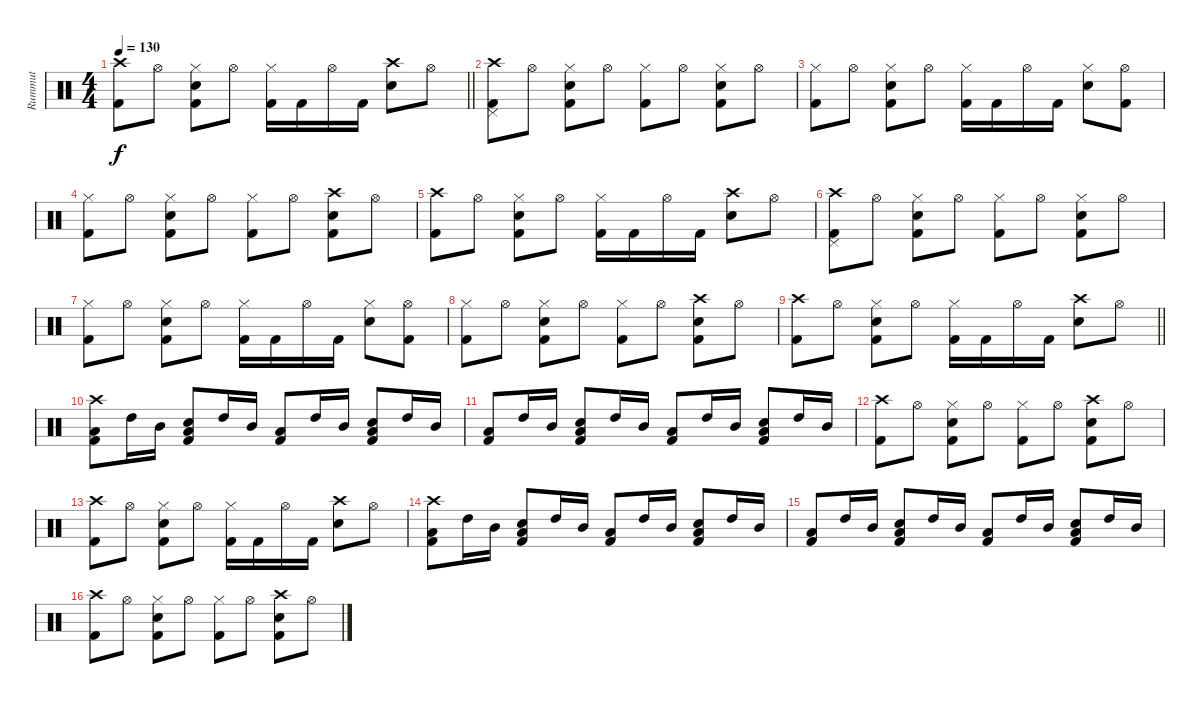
\track ("Rummut" "Rummut") {instrument percussion}
\staff {score}
\articulation defaults
\ts (4 4)
\tempo 130
\clef neutral
\barLineRight lightlight
\ks c
("Crash high (hit)" "Kick (hit) 2").8{dy f} "Hi-Hat (open)".8 ("Hi-Hat (closed)" "Snare (hit) 2" "Kick (hit) 2").8 "Hi-Hat (open)".8 ("Hi-Hat (closed)" "Kick (hit) 2").16 "Kick (hit) 2".16 "Hi-Hat (open)".16 "Kick (hit) 2".16 ("Crash high (hit)" "Snare (hit) 2").8 "Hi-Hat (open)".8 |
("Crash high (hit)" "Pedal Hi-Hat (hit)" "Kick (hit) 2").8 "Hi-Hat (open)".8 ("Hi-Hat (closed)" "Snare (hit) 2" "Kick (hit) 2").8 "Hi-Hat (open)".8 ("Hi-Hat (closed)" "Kick (hit) 2").8 "Hi-Hat (open)".8 ("Hi-Hat (closed)" "Snare (hit) 2" "Kick (hit) 2").8 "Hi-Hat (open)".8 |
("Hi-Hat (closed)" "Kick (hit) 2").8 "Hi-Hat (open)".8 ("Hi-Hat (closed)" "Snare (hit) 2" "Kick (hit) 2").8 "Hi-Hat (open)".8 ("Hi-Hat (closed)" "Kick (hit) 2").16 "Kick (hit) 2".16 "Hi-Hat (open)".16 "Kick (hit) 2".16 ("Hi-Hat (closed)" "Snare (hit) 2").8 ("Hi-Hat (open)" "Kick (hit) 2").8 |
("Hi-Hat (closed)" "Kick (hit) 2").8 "Hi-Hat (open)".8 ("Hi-Hat (closed)" "Snare (hit) 2" "Kick (hit) 2").8 "Hi-Hat (open)".8 ("Hi-Hat (closed)" "Kick (hit) 2").8 "Hi-Hat (open)".8 ("Crash high (hit)" "Snare (hit) 2" "Kick (hit) 2").8 "Hi-Hat (open)".8 |
("Crash high (hit)" "Kick (hit) 2").8 "Hi-Hat (open)".8 ("Hi-Hat (closed)" "Snare (hit) 2" "Kick (hit) 2").8 "Hi-Hat (open)".8 ("Hi-Hat (closed)" "Kick (hit) 2").16 "Kick (hit) 2".16 "Hi-Hat (open)".16 "Kick (hit) 2".16 ("Crash high (hit)" "Snare (hit) 2").8 "Hi-Hat (open)".8 |
("Crash high (hit)" "Pedal Hi-Hat (hit)" "Kick (hit) 2").8 "Hi-Hat (open)".8 ("Hi-Hat (closed)" "Snare (hit) 2" "Kick (hit) 2").8 "Hi-Hat (open)".8 ("Hi-Hat (closed)" "Kick (hit) 2").8 "Hi-Hat (open)".8 ("Hi-Hat (closed)" "Snare (hit) 2" "Kick (hit) 2").8 "Hi-Hat (open)".8 |
("Hi-Hat (closed)" "Kick (hit) 2").8 "Hi-Hat (open)".8 ("Hi-Hat (closed)" "Snare (hit) 2" "Kick (hit) 2").8 "Hi-Hat (open)".8 ("Hi-Hat (closed)" "Kick (hit) 2").16 "Kick (hit) 2".16 "Hi-Hat (open)".16 "Kick (hit) 2".16 ("Hi-Hat (closed)" "Snare (hit) 2").8 ("Hi-Hat (open)" "Kick (hit) 2").8 |
("Hi-Hat (closed)" "Kick (hit) 2").8 "Hi-Hat (open)".8 ("Hi-Hat (closed)" "Snare (hit) 2" "Kick (hit) 2").8 "Hi-Hat (open)".8 ("Hi-Hat (closed)" "Kick (hit) 2").8 "Hi-Hat (open)".8 ("Crash high (hit)" "Snare (hit) 2" "Kick (hit) 2").8 "Hi-Hat (open)".8 |
\barLineRight lightlight
("Crash high (hit)" "Kick (hit) 2").8 "Hi-Hat (open)".8 ("Hi-Hat (closed)" "Snare (hit) 2" "Kick (hit) 2").8 "Hi-Hat (open)".8 ("Hi-Hat (closed)" "Kick (hit) 2").16 "Kick (hit) 2".16 "Hi-Hat (open)".16 "Kick (hit) 2".16 ("Crash high (hit)" "Snare (hit) 2").8 "Hi-Hat (open)".8 |
("Crash high (hit)" "Low Tom (hit)" "Kick (hit) 2").8 "High Tom (hit)".16 "Mid Tom (hit)".16 ("Snare (hit) 2" "Low Tom (hit)" "Kick (hit) 2").8 "High Tom (hit)".16 "Mid Tom (hit)".16 ("Low Tom (hit)" "Kick (hit) 2").8 "High Tom (hit)".16 "Mid Tom (hit)".16 ("Snare (hit) 2" "Low Tom (hit)" "Kick (hit) 2").8 "High Tom (hit)".16 "Mid Tom (hit)".16 |
("Low Tom (hit)" "Kick (hit) 2").8 "High Tom (hit)".16 "Mid Tom (hit)".16 ("Snare (hit) 2" "Low Tom (hit)" "Kick (hit) 2").8 "High Tom (hit)".16 "Mid Tom (hit)".16 ("Low Tom (hit)" "Kick (hit) 2").8 "High Tom (hit)".16 "Mid Tom (hit)".16 ("Snare (hit) 2" "Low Tom (hit)" "Kick (hit) 2").8 "High Tom (hit)".16 "Mid Tom (hit)".16 |
("Crash high (hit)" "Kick (hit) 2").8 "Hi-Hat (open)".8 ("Hi-Hat (closed)" "Snare (hit) 2" "Kick (hit) 2").8 "Hi-Hat (open)".8 ("Hi-Hat (closed)" "Kick (hit) 2").8 "Hi-Hat (open)".8 ("Crash high (hit)" "Snare (hit) 2" "Kick (hit) 2").8 "Hi-Hat (open)".8 |
("Crash high (hit)" "Kick (hit) 2").8 "Hi-Hat (open)".8 ("Hi-Hat (closed)" "Snare (hit) 2" "Kick (hit) 2").8 "Hi-Hat (open)".8 ("Hi-Hat (closed)" "Kick (hit) 2").16 "Kick (hit) 2".16 "Hi-Hat (open)".16 "Kick (hit) 2".16 ("Crash high (hit)" "Snare (hit) 2").8 "Hi-Hat (open)".8 |
("Crash high (hit)" "Low Tom (hit)" "Kick (hit) 2").8 "High Tom (hit)".16 "Mid Tom (hit)".16 ("Snare (hit) 2" "Low Tom (hit)" "Kick (hit) 2").8 "High Tom (hit)".16 "Mid Tom (hit)".16 ("Low Tom (hit)" "Kick (hit) 2").8 "High Tom (hit)".16 "Mid Tom (hit)".16 ("Snare (hit) 2" "Low Tom (hit)" "Kick (hit) 2").8 "High Tom (hit)".16 "Mid Tom (hit)".16 |
("Low Tom (hit)" "Kick (hit) 2").8 "High Tom (hit)".16 "Mid Tom (hit)".16 ("Snare (hit) 2" "Low Tom (hit)" "Kick (hit) 2").8 "High Tom (hit)".16 "Mid Tom (hit)".16 ("Low Tom (hit)" "Kick (hit) 2").8 "High Tom (hit)".16 "Mid Tom (hit)".16 ("Snare (hit) 2" "Low Tom (hit)" "Kick (hit) 2").8 "High Tom (hit)".16 "Mid Tom (hit)".16 |
("Crash high (hit)" "Kick (hit) 2").8 "Hi-Hat (open)".8 ("Hi-Hat (closed)" "Snare (hit) 2" "Kick (hit) 2").8 "Hi-Hat (open)".8 ("Hi-Hat (closed)" "Kick (hit) 2").8 "Hi-Hat (open)".8 ("Crash high (hit)" "Snare (hit) 2" "Kick (hit) 2").8 "Hi-Hat (open)".8
